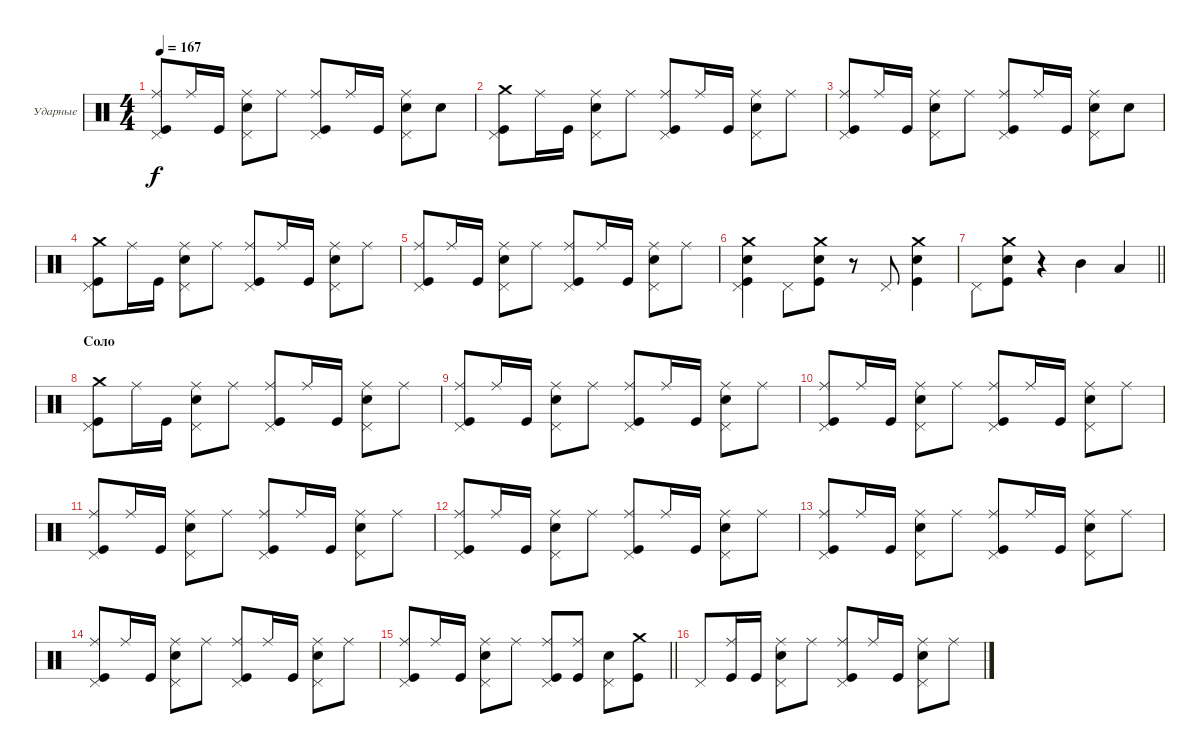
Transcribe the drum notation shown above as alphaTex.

\bracketExtendMode groupsimilarinstruments
\firstSystemTrackNameOrientation horizontal
\otherSystemsTrackNameOrientation horizontal
\track ("Максим Удалов" "Ударные") {instrument percussion}
\staff {score}
\articulation defaults
\ts (4 4)
\tempo 167
\clef neutral
\ks aminor
("Kick (hit)" "Ride (middle)" "Pedal Hi-Hat (hit)").8{dy f} "Ride (middle)".16 "Kick (hit)".16 ("Snare (hit) 2" "Ride (middle)" "Pedal Hi-Hat (hit)").8 "Ride (middle)".8 ("Ride (middle)" "Kick (hit)" "Pedal Hi-Hat (hit)").8 "Ride (middle)".16 "Kick (hit)".16 ("Ride (middle)" "Snare (hit) 2" "Pedal Hi-Hat (hit)").8 "Snare (hit) 2".8 |
("Kick (hit)" "Pedal Hi-Hat (hit)" "Crash medium (hit)").8 "Ride (middle)".16 "Kick (hit)".16 ("Ride (middle)" "Snare (hit) 2" "Pedal Hi-Hat (hit)").8 "Ride (middle)".8 ("Ride (middle)" "Kick (hit)" "Pedal Hi-Hat (hit)").8 "Ride (middle)".16 "Kick (hit)".16 ("Ride (middle)" "Snare (hit) 2" "Pedal Hi-Hat (hit)").8 "Ride (middle)".8 |
("Kick (hit)" "Ride (middle)" "Pedal Hi-Hat (hit)").8 "Ride (middle)".16 "Kick (hit)".16 ("Snare (hit) 2" "Ride (middle)" "Pedal Hi-Hat (hit)").8 "Ride (middle)".8 ("Ride (middle)" "Kick (hit)" "Pedal Hi-Hat (hit)").8 "Ride (middle)".16 "Kick (hit)".16 ("Ride (middle)" "Snare (hit) 2" "Pedal Hi-Hat (hit)").8 "Snare (hit) 2".8 |
("Kick (hit)" "Pedal Hi-Hat (hit)" "Crash medium (hit)").8 "Ride (middle)".16 "Kick (hit)".16 ("Ride (middle)" "Snare (hit) 2" "Pedal Hi-Hat (hit)").8 "Ride (middle)".8 ("Ride (middle)" "Kick (hit)" "Pedal Hi-Hat (hit)").8 "Ride (middle)".16 "Kick (hit)".16 ("Ride (middle)" "Snare (hit) 2" "Pedal Hi-Hat (hit)").8 "Ride (middle)".8 |
("Kick (hit)" "Ride (middle)" "Pedal Hi-Hat (hit)").8 "Ride (middle)".16 "Kick (hit)".16 ("Snare (hit) 2" "Ride (middle)" "Pedal Hi-Hat (hit)").8 "Ride (middle)".8 ("Ride (middle)" "Kick (hit)" "Pedal Hi-Hat (hit)").8 "Ride (middle)".16 "Kick (hit)".16 ("Snare (hit) 2" "Ride (middle)" "Pedal Hi-Hat (hit)").8 "Ride (middle)".8 |
("Snare (hit) 2" "Crash medium (hit)" "Kick (hit)" "Pedal Hi-Hat (hit)").4 "Pedal Hi-Hat (hit)".8 ("Crash medium (hit)" "Kick (hit)" "Snare (hit) 2").8 r.8 "Pedal Hi-Hat (hit)".8 ("Crash medium (hit)" "Snare (hit) 2" "Kick (hit)").4 |
\barLineRight lightlight "Pedal Hi-Hat (hit)".8
("Crash medium (hit)" "Kick (hit)" "Snare (hit) 2").8 r.4 "Mid Tom (hit)".4 "Low Tom (hit)".4 |
\section ("" "Соло")
("Kick (hit)" "Crash medium (hit)" "Pedal Hi-Hat (hit)").8 "Ride (middle)".16 "Kick (hit)".16 ("Snare (hit) 2" "Ride (middle)" "Pedal Hi-Hat (hit)").8 "Ride (middle)".8 ("Ride (middle)" "Kick (hit)" "Pedal Hi-Hat (hit)").8 "Ride (middle)".16 "Kick (hit)".16 ("Snare (hit) 2" "Ride (middle)" "Pedal Hi-Hat (hit)").8 "Ride (middle)".8 |
("Kick (hit)" "Ride (middle)" "Pedal Hi-Hat (hit)").8 "Ride (middle)".16 "Kick (hit)".16 ("Snare (hit) 2" "Ride (middle)" "Pedal Hi-Hat (hit)").8 "Ride (middle)".8 ("Ride (middle)" "Kick (hit)" "Pedal Hi-Hat (hit)").8 "Ride (middle)".16 "Kick (hit)".16 ("Snare (hit) 2" "Ride (middle)" "Pedal Hi-Hat (hit)").8 "Ride (middle)".8 |
("Kick (hit)" "Ride (middle)" "Pedal Hi-Hat (hit)").8 "Ride (middle)".16 "Kick (hit)".16 ("Snare (hit) 2" "Ride (middle)" "Pedal Hi-Hat (hit)").8 "Ride (middle)".8 ("Ride (middle)" "Kick (hit)" "Pedal Hi-Hat (hit)").8 "Ride (middle)".16 "Kick (hit)".16 ("Snare (hit) 2" "Ride (middle)" "Pedal Hi-Hat (hit)").8 "Ride (middle)".8 |
("Kick (hit)" "Ride (middle)" "Pedal Hi-Hat (hit)").8 "Ride (middle)".16 "Kick (hit)".16 ("Snare (hit) 2" "Ride (middle)" "Pedal Hi-Hat (hit)").8 "Ride (middle)".8 ("Ride (middle)" "Kick (hit)" "Pedal Hi-Hat (hit)").8 "Ride (middle)".16 "Kick (hit)".16 ("Snare (hit) 2" "Ride (middle)" "Pedal Hi-Hat (hit)").8 "Ride (middle)".8 |
("Kick (hit)" "Ride (middle)" "Pedal Hi-Hat (hit)").8 "Ride (middle)".16 "Kick (hit)".16 ("Snare (hit) 2" "Ride (middle)" "Pedal Hi-Hat (hit)").8 "Ride (middle)".8 ("Ride (middle)" "Kick (hit)" "Pedal Hi-Hat (hit)").8 "Ride (middle)".16 "Kick (hit)".16 ("Snare (hit) 2" "Ride (middle)" "Pedal Hi-Hat (hit)").8 "Ride (middle)".8 |
("Kick (hit)" "Ride (middle)" "Pedal Hi-Hat (hit)").8 "Ride (middle)".16 "Kick (hit)".16 ("Snare (hit) 2" "Ride (middle)" "Pedal Hi-Hat (hit)").8 "Ride (middle)".8 ("Ride (middle)" "Kick (hit)" "Pedal Hi-Hat (hit)").8 "Ride (middle)".16 "Kick (hit)".16 ("Snare (hit) 2" "Ride (middle)" "Pedal Hi-Hat (hit)").8 "Ride (middle)".8 |
("Kick (hit)" "Ride (middle)" "Pedal Hi-Hat (hit)").8 "Ride (middle)".16 "Kick (hit)".16 ("Snare (hit) 2" "Ride (middle)" "Pedal Hi-Hat (hit)").8 "Ride (middle)".8 ("Ride (middle)" "Kick (hit)" "Pedal Hi-Hat (hit)").8 "Ride (middle)".16 "Kick (hit)".16 ("Snare (hit) 2" "Ride (middle)" "Pedal Hi-Hat (hit)").8 "Ride (middle)".8 |
\barLineRight lightlight
("Kick (hit)" "Ride (middle)" "Pedal Hi-Hat (hit)").8 "Ride (middle)".16 "Kick (hit)".16 ("Snare (hit) 2" "Ride (middle)" "Pedal Hi-Hat (hit)").8 "Ride (middle)".8 ("Ride (middle)" "Kick (hit)" "Pedal Hi-Hat (hit)").8 ("Ride (middle)" "Kick (hit)").8 ("Snare (hit) 2" "Pedal Hi-Hat (hit)").8 ("Kick (hit)" "Crash medium (hit)").8 |
"Pedal Hi-Hat (hit)".8 ("Ride (middle)" "Kick (hit)").16 "Kick (hit)".16 ("Snare (hit) 2" "Ride (middle)" "Pedal Hi-Hat (hit)").8 "Ride (middle)".8 ("Ride (middle)" "Kick (hit)" "Pedal Hi-Hat (hit)").8 "Ride (middle)".16 "Kick (hit)".16 ("Snare (hit) 2" "Ride (middle)" "Pedal Hi-Hat (hit)").8 "Ride (middle)".8
